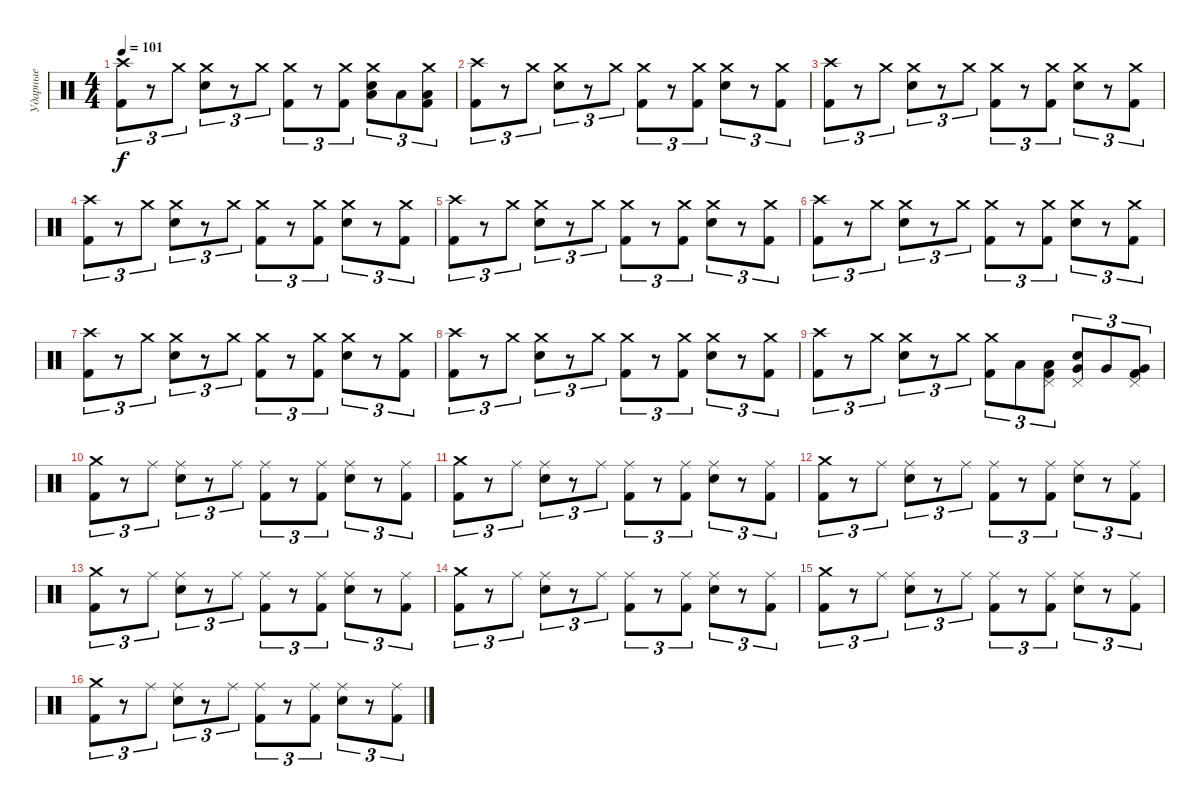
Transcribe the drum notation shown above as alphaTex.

\track ("Ударные" "Ударные") {instrument percussion}
\staff {score}
\articulation defaults
\ts (4 4)
\tempo 101
\clef neutral
\ks c
("Crash high (hit)" "Kick (hit) 2").8{tu (3 2) dy f} r.8{tu (3 2)} "Crash medium (hit)".8{tu (3 2)} ("Crash medium (hit)" "Snare (hit) 2").8{tu (3 2)} r.8{tu (3 2)} "Crash medium (hit)".8{tu (3 2)} ("Crash medium (hit)" "Kick (hit) 2").8{tu (3 2)} r.8{tu (3 2)} ("Crash medium (hit)" "Kick (hit) 2").8{tu (3 2)} ("Crash medium (hit)" "Low Tom (hit)" "Snare (hit) 2").8{tu (3 2)} "Low Tom (hit)".8{tu (3 2)} ("Crash medium (hit)" "Low Tom (hit)" "Kick (hit) 2").8{tu (3 2)} |
("Crash high (hit)" "Kick (hit) 2").8{tu (3 2)} r.8{tu (3 2)} "Crash medium (hit)".8{tu (3 2)} ("Crash medium (hit)" "Snare (hit) 2").8{tu (3 2)} r.8{tu (3 2)} "Crash medium (hit)".8{tu (3 2)} ("Crash medium (hit)" "Kick (hit) 2").8{tu (3 2)} r.8{tu (3 2)} ("Crash medium (hit)" "Kick (hit) 2").8{tu (3 2)} ("Crash medium (hit)" "Snare (hit) 2").8{tu (3 2)} r.8{tu (3 2)} ("Crash medium (hit)" "Kick (hit) 2").8{tu (3 2)} |
("Crash high (hit)" "Kick (hit) 2").8{tu (3 2)} r.8{tu (3 2)} "Crash medium (hit)".8{tu (3 2)} ("Crash medium (hit)" "Snare (hit) 2").8{tu (3 2)} r.8{tu (3 2)} "Crash medium (hit)".8{tu (3 2)} ("Crash medium (hit)" "Kick (hit) 2").8{tu (3 2)} r.8{tu (3 2)} ("Crash medium (hit)" "Kick (hit) 2").8{tu (3 2)} ("Crash medium (hit)" "Snare (hit) 2").8{tu (3 2)} r.8{tu (3 2)} ("Crash medium (hit)" "Kick (hit) 2").8{tu (3 2)} |
("Crash high (hit)" "Kick (hit) 2").8{tu (3 2)} r.8{tu (3 2)} "Crash medium (hit)".8{tu (3 2)} ("Crash medium (hit)" "Snare (hit) 2").8{tu (3 2)} r.8{tu (3 2)} "Crash medium (hit)".8{tu (3 2)} ("Crash medium (hit)" "Kick (hit) 2").8{tu (3 2)} r.8{tu (3 2)} ("Crash medium (hit)" "Kick (hit) 2").8{tu (3 2)} ("Crash medium (hit)" "Snare (hit) 2").8{tu (3 2)} r.8{tu (3 2)} ("Crash medium (hit)" "Kick (hit) 2").8{tu (3 2)} |
("Crash high (hit)" "Kick (hit) 2").8{tu (3 2)} r.8{tu (3 2)} "Crash medium (hit)".8{tu (3 2)} ("Crash medium (hit)" "Snare (hit) 2").8{tu (3 2)} r.8{tu (3 2)} "Crash medium (hit)".8{tu (3 2)} ("Crash medium (hit)" "Kick (hit) 2").8{tu (3 2)} r.8{tu (3 2)} ("Crash medium (hit)" "Kick (hit) 2").8{tu (3 2)} ("Crash medium (hit)" "Snare (hit) 2").8{tu (3 2)} r.8{tu (3 2)} ("Crash medium (hit)" "Kick (hit) 2").8{tu (3 2)} |
("Crash high (hit)" "Kick (hit) 2").8{tu (3 2)} r.8{tu (3 2)} "Crash medium (hit)".8{tu (3 2)} ("Crash medium (hit)" "Snare (hit) 2").8{tu (3 2)} r.8{tu (3 2)} "Crash medium (hit)".8{tu (3 2)} ("Crash medium (hit)" "Kick (hit) 2").8{tu (3 2)} r.8{tu (3 2)} ("Crash medium (hit)" "Kick (hit) 2").8{tu (3 2)} ("Crash medium (hit)" "Snare (hit) 2").8{tu (3 2)} r.8{tu (3 2)} ("Crash medium (hit)" "Kick (hit) 2").8{tu (3 2)} |
("Crash high (hit)" "Kick (hit) 2").8{tu (3 2)} r.8{tu (3 2)} "Crash medium (hit)".8{tu (3 2)} ("Crash medium (hit)" "Snare (hit) 2").8{tu (3 2)} r.8{tu (3 2)} "Crash medium (hit)".8{tu (3 2)} ("Crash medium (hit)" "Kick (hit) 2").8{tu (3 2)} r.8{tu (3 2)} ("Crash medium (hit)" "Kick (hit) 2").8{tu (3 2)} ("Crash medium (hit)" "Snare (hit) 2").8{tu (3 2)} r.8{tu (3 2)} ("Crash medium (hit)" "Kick (hit) 2").8{tu (3 2)} |
("Crash high (hit)" "Kick (hit) 2").8{tu (3 2)} r.8{tu (3 2)} "Crash medium (hit)".8{tu (3 2)} ("Crash medium (hit)" "Snare (hit) 2").8{tu (3 2)} r.8{tu (3 2)} "Crash medium (hit)".8{tu (3 2)} ("Crash medium (hit)" "Kick (hit) 2").8{tu (3 2)} r.8{tu (3 2)} ("Crash medium (hit)" "Kick (hit) 2").8{tu (3 2)} ("Crash medium (hit)" "Snare (hit) 2").8{tu (3 2)} r.8{tu (3 2)} ("Crash medium (hit)" "Kick (hit) 2").8{tu (3 2)} |
("Crash high (hit)" "Kick (hit) 2").8{tu (3 2)} r.8{tu (3 2)} "Crash medium (hit)".8{tu (3 2)} ("Crash medium (hit)" "Snare (hit) 2").8{tu (3 2)} r.8{tu (3 2)} "Crash medium (hit)".8{tu (3 2)} ("Crash medium (hit)" "Kick (hit) 2").8{tu (3 2)} "Low Tom (hit)".8{tu (3 2)} ("Pedal Hi-Hat (hit)" "Low Tom (hit)" "Kick (hit) 2").8{tu (3 2)} ("Pedal Hi-Hat (hit)" "Very Low Tom (hit)" "Snare (hit) 2").8{tu (3 2)} "Very Low Tom (hit)".8{tu (3 2)} ("Pedal Hi-Hat (hit)" "Very Low Tom (hit)" "Kick (hit) 2").8{tu (3 2)} |
("Crash medium (hit)" "Kick (hit) 2").8{tu (3 2)} r.8{tu (3 2)} "Ride (middle)".8{tu (3 2)} ("Ride (middle)" "Snare (hit) 2").8{tu (3 2)} r.8{tu (3 2)} "Ride (middle)".8{tu (3 2)} ("Ride (middle)" "Kick (hit) 2").8{tu (3 2)} r.8{tu (3 2)} ("Ride (middle)" "Kick (hit) 2").8{tu (3 2)} ("Ride (middle)" "Snare (hit) 2").8{tu (3 2)} r.8{tu (3 2)} ("Ride (middle)" "Kick (hit) 2").8{tu (3 2)} |
("Crash medium (hit)" "Kick (hit) 2").8{tu (3 2)} r.8{tu (3 2)} "Ride (middle)".8{tu (3 2)} ("Ride (middle)" "Snare (hit) 2").8{tu (3 2)} r.8{tu (3 2)} "Ride (middle)".8{tu (3 2)} ("Ride (middle)" "Kick (hit) 2").8{tu (3 2)} r.8{tu (3 2)} ("Ride (middle)" "Kick (hit) 2").8{tu (3 2)} ("Ride (middle)" "Snare (hit) 2").8{tu (3 2)} r.8{tu (3 2)} ("Ride (middle)" "Kick (hit) 2").8{tu (3 2)} |
("Crash medium (hit)" "Kick (hit) 2").8{tu (3 2)} r.8{tu (3 2)} "Ride (middle)".8{tu (3 2)} ("Ride (middle)" "Snare (hit) 2").8{tu (3 2)} r.8{tu (3 2)} "Ride (middle)".8{tu (3 2)} ("Ride (middle)" "Kick (hit) 2").8{tu (3 2)} r.8{tu (3 2)} ("Ride (middle)" "Kick (hit) 2").8{tu (3 2)} ("Ride (middle)" "Snare (hit) 2").8{tu (3 2)} r.8{tu (3 2)} ("Ride (middle)" "Kick (hit) 2").8{tu (3 2)} |
("Crash medium (hit)" "Kick (hit) 2").8{tu (3 2)} r.8{tu (3 2)} "Ride (middle)".8{tu (3 2)} ("Ride (middle)" "Snare (hit) 2").8{tu (3 2)} r.8{tu (3 2)} "Ride (middle)".8{tu (3 2)} ("Ride (middle)" "Kick (hit) 2").8{tu (3 2)} r.8{tu (3 2)} ("Ride (middle)" "Kick (hit) 2").8{tu (3 2)} ("Ride (middle)" "Snare (hit) 2").8{tu (3 2)} r.8{tu (3 2)} ("Ride (middle)" "Kick (hit) 2").8{tu (3 2)} |
("Crash medium (hit)" "Kick (hit) 2").8{tu (3 2)} r.8{tu (3 2)} "Ride (middle)".8{tu (3 2)} ("Ride (middle)" "Snare (hit) 2").8{tu (3 2)} r.8{tu (3 2)} "Ride (middle)".8{tu (3 2)} ("Ride (middle)" "Kick (hit) 2").8{tu (3 2)} r.8{tu (3 2)} ("Ride (middle)" "Kick (hit) 2").8{tu (3 2)} ("Ride (middle)" "Snare (hit) 2").8{tu (3 2)} r.8{tu (3 2)} ("Ride (middle)" "Kick (hit) 2").8{tu (3 2)} |
("Crash medium (hit)" "Kick (hit) 2").8{tu (3 2)} r.8{tu (3 2)} "Ride (middle)".8{tu (3 2)} ("Ride (middle)" "Snare (hit) 2").8{tu (3 2)} r.8{tu (3 2)} "Ride (middle)".8{tu (3 2)} ("Ride (middle)" "Kick (hit) 2").8{tu (3 2)} r.8{tu (3 2)} ("Ride (middle)" "Kick (hit) 2").8{tu (3 2)} ("Ride (middle)" "Snare (hit) 2").8{tu (3 2)} r.8{tu (3 2)} ("Ride (middle)" "Kick (hit) 2").8{tu (3 2)} |
("Crash medium (hit)" "Kick (hit) 2").8{tu (3 2)} r.8{tu (3 2)} "Ride (middle)".8{tu (3 2)} ("Ride (middle)" "Snare (hit) 2").8{tu (3 2)} r.8{tu (3 2)} "Ride (middle)".8{tu (3 2)} ("Ride (middle)" "Kick (hit) 2").8{tu (3 2)} r.8{tu (3 2)} ("Ride (middle)" "Kick (hit) 2").8{tu (3 2)} ("Ride (middle)" "Snare (hit) 2").8{tu (3 2)} r.8{tu (3 2)} ("Ride (middle)" "Kick (hit) 2").8{tu (3 2)}
